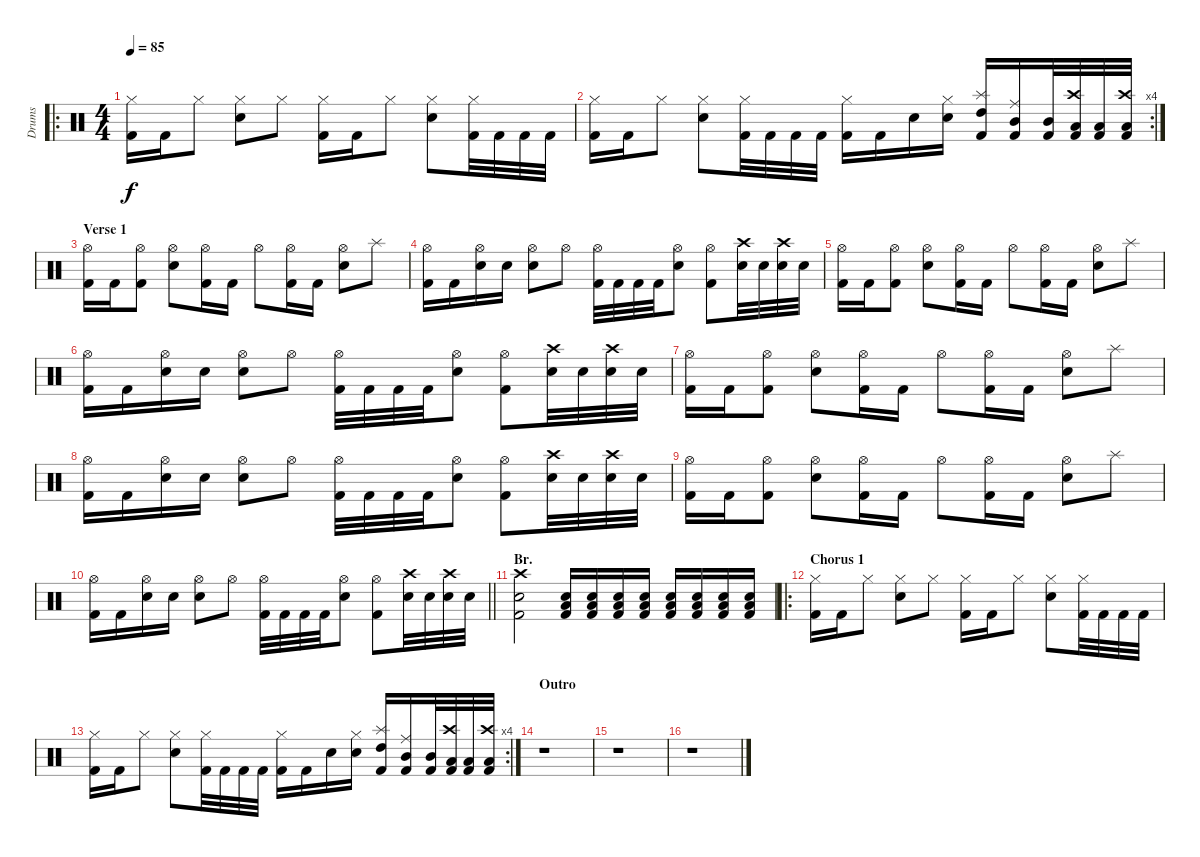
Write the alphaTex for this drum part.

\track ("Drums" "Drums") {instrument percussion}
\staff {score}
\articulation defaults
\ro
\ts (4 4)
\tempo 85
\clef neutral
\ks c
("Hi-Hat (closed)" "Kick (hit) 2").16{dy f} "Kick (hit) 2".16 "Hi-Hat (closed)".8 ("Hi-Hat (closed)" "Snare (hit) 2").8 "Hi-Hat (closed)".8 ("Hi-Hat (closed)" "Kick (hit) 2").16 "Kick (hit) 2".16 "Hi-Hat (closed)".8 ("Hi-Hat (closed)" "Snare (hit) 2").8 ("Hi-Hat (closed)" "Kick (hit) 2").32 "Kick (hit) 2".32 "Kick (hit) 2".32 "Kick (hit) 2".32 |
\rc 4
("Hi-Hat (closed)" "Kick (hit) 2").16 "Kick (hit) 2".16 "Hi-Hat (closed)".8 ("Hi-Hat (closed)" "Snare (hit) 2").8 ("Hi-Hat (closed)" "Kick (hit) 2").32 "Kick (hit) 2".32 "Kick (hit) 2".32 "Kick (hit) 2".32 ("Hi-Hat (closed)" "Kick (hit) 2").16 "Kick (hit) 2".16 "Snare (hit) 2".16 ("Hi-Hat (closed)" "Snare (hit) 2").16 ("Splash (hit)" "High Tom (hit)" "Kick (hit) 2").16 ("Ride (middle)" "Mid Tom (hit)" "Kick (hit) 2").16 ("Mid Tom (hit)" "Kick (hit) 2").32 ("Crash high (hit)" "Low Tom (hit)" "Kick (hit) 2").32 ("Low Tom (hit)" "Kick (hit) 2").32 ("Crash high (hit)" "Low Tom (hit)" "Kick (hit) 2").32 |
\section ("" "Verse 1")
("Hi-Hat (open)" "Kick (hit) 2").16 "Kick (hit) 2".16 ("Hi-Hat (open)" "Kick (hit) 2").8 ("Hi-Hat (open)" "Snare (hit) 2").8 ("Hi-Hat (open)" "Kick (hit) 2").16 "Kick (hit) 2".16 "Hi-Hat (open)".8 ("Hi-Hat (open)" "Kick (hit) 2").16 "Kick (hit) 2".16 ("Hi-Hat (open)" "Snare (hit) 2").8 "Splash (hit)".8 |
("Hi-Hat (open)" "Kick (hit) 2").16 "Kick (hit) 2".16 ("Hi-Hat (open)" "Snare (hit) 2").16 "Snare (hit) 2".16 ("Hi-Hat (open)" "Snare (hit) 2").8 "Hi-Hat (open)".8 ("Hi-Hat (open)" "Kick (hit) 2").32 "Kick (hit) 2".32 "Kick (hit) 2".32 "Kick (hit) 2".32 ("Hi-Hat (open)" "Snare (hit) 2").8 ("Hi-Hat (open)" "Kick (hit) 2").8 ("Crash high (hit)" "Snare (hit) 2").32 "Snare (hit) 2".32 ("Crash high (hit)" "Snare (hit) 2").32 "Snare (hit) 2".32 |
("Hi-Hat (open)" "Kick (hit) 2").16 "Kick (hit) 2".16 ("Hi-Hat (open)" "Kick (hit) 2").8 ("Hi-Hat (open)" "Snare (hit) 2").8 ("Hi-Hat (open)" "Kick (hit) 2").16 "Kick (hit) 2".16 "Hi-Hat (open)".8 ("Hi-Hat (open)" "Kick (hit) 2").16 "Kick (hit) 2".16 ("Hi-Hat (open)" "Snare (hit) 2").8 "Splash (hit)".8 |
("Hi-Hat (open)" "Kick (hit) 2").16 "Kick (hit) 2".16 ("Hi-Hat (open)" "Snare (hit) 2").16 "Snare (hit) 2".16 ("Hi-Hat (open)" "Snare (hit) 2").8 "Hi-Hat (open)".8 ("Hi-Hat (open)" "Kick (hit) 2").32 "Kick (hit) 2".32 "Kick (hit) 2".32 "Kick (hit) 2".32 ("Hi-Hat (open)" "Snare (hit) 2").8 ("Hi-Hat (open)" "Kick (hit) 2").8 ("Crash high (hit)" "Snare (hit) 2").32 "Snare (hit) 2".32 ("Crash high (hit)" "Snare (hit) 2").32 "Snare (hit) 2".32 |
("Hi-Hat (open)" "Kick (hit) 2").16 "Kick (hit) 2".16 ("Hi-Hat (open)" "Kick (hit) 2").8 ("Hi-Hat (open)" "Snare (hit) 2").8 ("Hi-Hat (open)" "Kick (hit) 2").16 "Kick (hit) 2".16 "Hi-Hat (open)".8 ("Hi-Hat (open)" "Kick (hit) 2").16 "Kick (hit) 2".16 ("Hi-Hat (open)" "Snare (hit) 2").8 "Splash (hit)".8 |
("Hi-Hat (open)" "Kick (hit) 2").16 "Kick (hit) 2".16 ("Hi-Hat (open)" "Snare (hit) 2").16 "Snare (hit) 2".16 ("Hi-Hat (open)" "Snare (hit) 2").8 "Hi-Hat (open)".8 ("Hi-Hat (open)" "Kick (hit) 2").32 "Kick (hit) 2".32 "Kick (hit) 2".32 "Kick (hit) 2".32 ("Hi-Hat (open)" "Snare (hit) 2").8 ("Hi-Hat (open)" "Kick (hit) 2").8 ("Crash high (hit)" "Snare (hit) 2").32 "Snare (hit) 2".32 ("Crash high (hit)" "Snare (hit) 2").32 "Snare (hit) 2".32 |
("Hi-Hat (open)" "Kick (hit) 2").16 "Kick (hit) 2".16 ("Hi-Hat (open)" "Kick (hit) 2").8 ("Hi-Hat (open)" "Snare (hit) 2").8 ("Hi-Hat (open)" "Kick (hit) 2").16 "Kick (hit) 2".16 "Hi-Hat (open)".8 ("Hi-Hat (open)" "Kick (hit) 2").16 "Kick (hit) 2".16 ("Hi-Hat (open)" "Snare (hit) 2").8 "Splash (hit)".8 |
\barLineRight lightlight
("Hi-Hat (open)" "Kick (hit) 2").16 "Kick (hit) 2".16 ("Hi-Hat (open)" "Snare (hit) 2").16 "Snare (hit) 2".16 ("Hi-Hat (open)" "Snare (hit) 2").8 "Hi-Hat (open)".8 ("Hi-Hat (open)" "Kick (hit) 2").32 "Kick (hit) 2".32 "Kick (hit) 2".32 "Kick (hit) 2".32 ("Hi-Hat (open)" "Snare (hit) 2").8 ("Hi-Hat (open)" "Kick (hit) 2").8 ("Crash high (hit)" "Snare (hit) 2").32 "Snare (hit) 2".32 ("Crash high (hit)" "Snare (hit) 2").32 "Snare (hit) 2".32 |
\section ("" "Br.")
("Crash high (hit)" "Snare (hit) 2" "Kick (hit) 2").2 ("Low Floor Tom (hit)" "Snare (hit) 2" "Kick (hit) 2").16{volume 13} ("Low Floor Tom (hit)" "Snare (hit) 2" "Kick (hit) 2").16 ("Low Floor Tom (hit)" "Snare (hit) 2" "Kick (hit) 2").16 ("Low Floor Tom (hit)" "Snare (hit) 2" "Kick (hit) 2").16 ("Low Floor Tom (hit)" "Snare (hit) 2" "Kick (hit) 2").16 ("Low Floor Tom (hit)" "Snare (hit) 2" "Kick (hit) 2").16 ("Low Floor Tom (hit)" "Snare (hit) 2" "Kick (hit) 2").16 ("Low Floor Tom (hit)" "Snare (hit) 2" "Kick (hit) 2").16 |
\ro
\section ("" "Chorus 1")
("Hi-Hat (closed)" "Kick (hit) 2").16 "Kick (hit) 2".16 "Hi-Hat (closed)".8 ("Hi-Hat (closed)" "Snare (hit) 2").8 "Hi-Hat (closed)".8 ("Hi-Hat (closed)" "Kick (hit) 2").16 "Kick (hit) 2".16 "Hi-Hat (closed)".8 ("Hi-Hat (closed)" "Snare (hit) 2").8 ("Hi-Hat (closed)" "Kick (hit) 2").32 "Kick (hit) 2".32 "Kick (hit) 2".32 "Kick (hit) 2".32 |
\rc 4
("Hi-Hat (closed)" "Kick (hit) 2").16 "Kick (hit) 2".16 "Hi-Hat (closed)".8 ("Hi-Hat (closed)" "Snare (hit) 2").8 ("Hi-Hat (closed)" "Kick (hit) 2").32 "Kick (hit) 2".32 "Kick (hit) 2".32 "Kick (hit) 2".32 ("Hi-Hat (closed)" "Kick (hit) 2").16 "Kick (hit) 2".16 "Snare (hit) 2".16 ("Hi-Hat (closed)" "Snare (hit) 2").16 ("Splash (hit)" "High Tom (hit)" "Kick (hit) 2").16 ("Ride (middle)" "Mid Tom (hit)" "Kick (hit) 2").16 ("Mid Tom (hit)" "Kick (hit) 2").32 ("Crash high (hit)" "Low Tom (hit)" "Kick (hit) 2").32 ("Low Tom (hit)" "Kick (hit) 2").32 ("Crash high (hit)" "Low Tom (hit)" "Kick (hit) 2").32 |
\section ("" "Outro")
r.1 |
r.1 |
r.1
